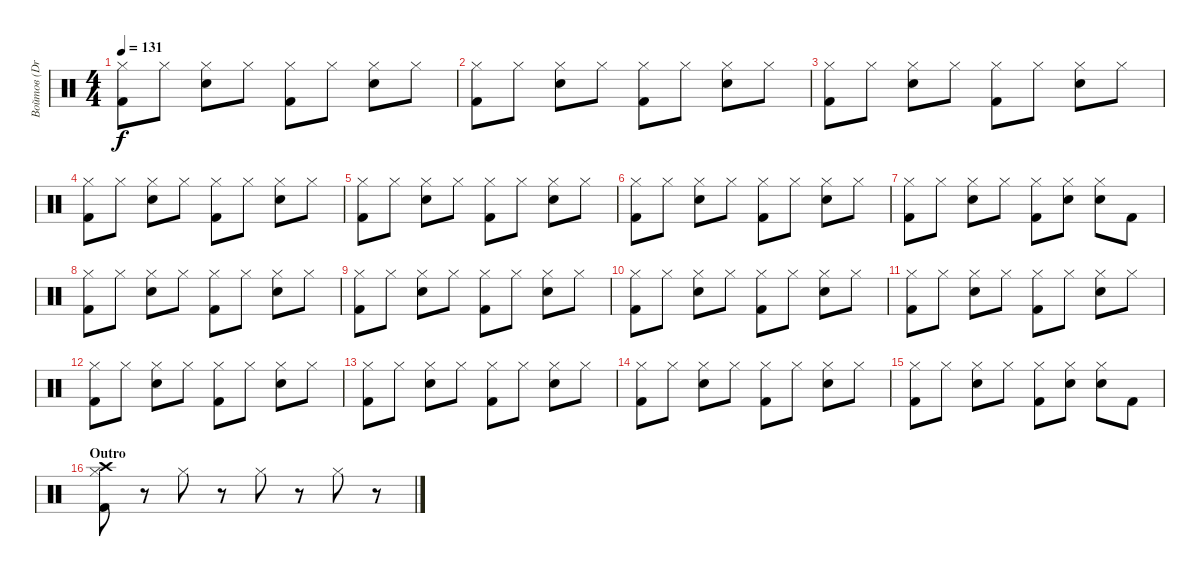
\track ("Войтов (Drums)" "Войтов (Dr") {instrument percussion}
\staff {score}
\articulation defaults
\ts (4 4)
\tempo 131
\clef neutral
\ks c
("Kick (hit) 2" "Hi-Hat (closed)").8{dy f} "Hi-Hat (closed)".8 ("Electric Snare (hit)" "Hi-Hat (closed)").8 "Hi-Hat (closed)".8 ("Kick (hit) 2" "Hi-Hat (closed)").8 "Hi-Hat (closed)".8 ("Electric Snare (hit)" "Hi-Hat (closed)").8 "Hi-Hat (closed)".8 |
("Kick (hit) 2" "Hi-Hat (closed)").8 "Hi-Hat (closed)".8 ("Electric Snare (hit)" "Hi-Hat (closed)").8 "Hi-Hat (closed)".8 ("Kick (hit) 2" "Hi-Hat (closed)").8 "Hi-Hat (closed)".8 ("Electric Snare (hit)" "Hi-Hat (closed)").8 "Hi-Hat (closed)".8 |
("Kick (hit) 2" "Hi-Hat (closed)").8 "Hi-Hat (closed)".8 ("Electric Snare (hit)" "Hi-Hat (closed)").8 "Hi-Hat (closed)".8 ("Kick (hit) 2" "Hi-Hat (closed)").8 "Hi-Hat (closed)".8 ("Electric Snare (hit)" "Hi-Hat (closed)").8 "Hi-Hat (closed)".8 |
("Kick (hit) 2" "Hi-Hat (closed)").8 "Hi-Hat (closed)".8 ("Electric Snare (hit)" "Hi-Hat (closed)").8 "Hi-Hat (closed)".8 ("Kick (hit) 2" "Hi-Hat (closed)").8 "Hi-Hat (closed)".8 ("Electric Snare (hit)" "Hi-Hat (closed)").8 "Hi-Hat (closed)".8 |
("Kick (hit) 2" "Hi-Hat (closed)").8 "Hi-Hat (closed)".8 ("Electric Snare (hit)" "Hi-Hat (closed)").8 "Hi-Hat (closed)".8 ("Kick (hit) 2" "Hi-Hat (closed)").8 "Hi-Hat (closed)".8 ("Electric Snare (hit)" "Hi-Hat (closed)").8 "Hi-Hat (closed)".8 |
("Kick (hit) 2" "Hi-Hat (closed)").8 "Hi-Hat (closed)".8 ("Electric Snare (hit)" "Hi-Hat (closed)").8 "Hi-Hat (closed)".8 ("Kick (hit) 2" "Hi-Hat (closed)").8 "Hi-Hat (closed)".8 ("Electric Snare (hit)" "Hi-Hat (closed)").8 "Hi-Hat (closed)".8 |
("Kick (hit) 2" "Hi-Hat (closed)").8 "Hi-Hat (closed)".8 ("Electric Snare (hit)" "Hi-Hat (closed)").8 "Hi-Hat (closed)".8 ("Kick (hit) 2" "Hi-Hat (closed)").8 ("Electric Snare (hit)" "Hi-Hat (closed)").8 ("Electric Snare (hit)" "Hi-Hat (closed)").8 "Kick (hit) 2".8 |
("Kick (hit) 2" "Hi-Hat (closed)").8 "Hi-Hat (closed)".8 ("Electric Snare (hit)" "Hi-Hat (closed)").8 "Hi-Hat (closed)".8 ("Kick (hit) 2" "Hi-Hat (closed)").8 "Hi-Hat (closed)".8 ("Electric Snare (hit)" "Hi-Hat (closed)").8 "Hi-Hat (closed)".8 |
("Kick (hit) 2" "Hi-Hat (closed)").8 "Hi-Hat (closed)".8 ("Electric Snare (hit)" "Hi-Hat (closed)").8 "Hi-Hat (closed)".8 ("Kick (hit) 2" "Hi-Hat (closed)").8 "Hi-Hat (closed)".8 ("Electric Snare (hit)" "Hi-Hat (closed)").8 "Hi-Hat (closed)".8 |
("Kick (hit) 2" "Hi-Hat (closed)").8 "Hi-Hat (closed)".8 ("Electric Snare (hit)" "Hi-Hat (closed)").8 "Hi-Hat (closed)".8 ("Kick (hit) 2" "Hi-Hat (closed)").8 "Hi-Hat (closed)".8 ("Electric Snare (hit)" "Hi-Hat (closed)").8 "Hi-Hat (closed)".8 |
("Kick (hit) 2" "Hi-Hat (closed)").8 "Hi-Hat (closed)".8 ("Electric Snare (hit)" "Hi-Hat (closed)").8 "Hi-Hat (closed)".8 ("Kick (hit) 2" "Hi-Hat (closed)").8 "Hi-Hat (closed)".8 ("Electric Snare (hit)" "Hi-Hat (closed)").8 "Hi-Hat (closed)".8 |
("Kick (hit) 2" "Hi-Hat (closed)").8 "Hi-Hat (closed)".8 ("Electric Snare (hit)" "Hi-Hat (closed)").8 "Hi-Hat (closed)".8 ("Kick (hit) 2" "Hi-Hat (closed)").8 "Hi-Hat (closed)".8 ("Electric Snare (hit)" "Hi-Hat (closed)").8 "Hi-Hat (closed)".8 |
("Kick (hit) 2" "Hi-Hat (closed)").8 "Hi-Hat (closed)".8 ("Electric Snare (hit)" "Hi-Hat (closed)").8 "Hi-Hat (closed)".8 ("Kick (hit) 2" "Hi-Hat (closed)").8 "Hi-Hat (closed)".8 ("Electric Snare (hit)" "Hi-Hat (closed)").8 "Hi-Hat (closed)".8 |
("Kick (hit) 2" "Hi-Hat (closed)").8 "Hi-Hat (closed)".8 ("Electric Snare (hit)" "Hi-Hat (closed)").8 "Hi-Hat (closed)".8 ("Kick (hit) 2" "Hi-Hat (closed)").8 "Hi-Hat (closed)".8 ("Electric Snare (hit)" "Hi-Hat (closed)").8 "Hi-Hat (closed)".8 |
("Kick (hit) 2" "Hi-Hat (closed)").8 "Hi-Hat (closed)".8 ("Electric Snare (hit)" "Hi-Hat (closed)").8 "Hi-Hat (closed)".8 ("Kick (hit) 2" "Hi-Hat (closed)").8 ("Electric Snare (hit)" "Hi-Hat (closed)").8 ("Electric Snare (hit)" "Hi-Hat (closed)").8 "Kick (hit) 2".8 |
\section ("" "Outro")
("Kick (hit) 2" "Crash high (hit)" "Hi-Hat (closed)").8 r.8 "Hi-Hat (closed)".8 r.8 "Hi-Hat (closed)".8 r.8 "Hi-Hat (closed)".8 r.8
